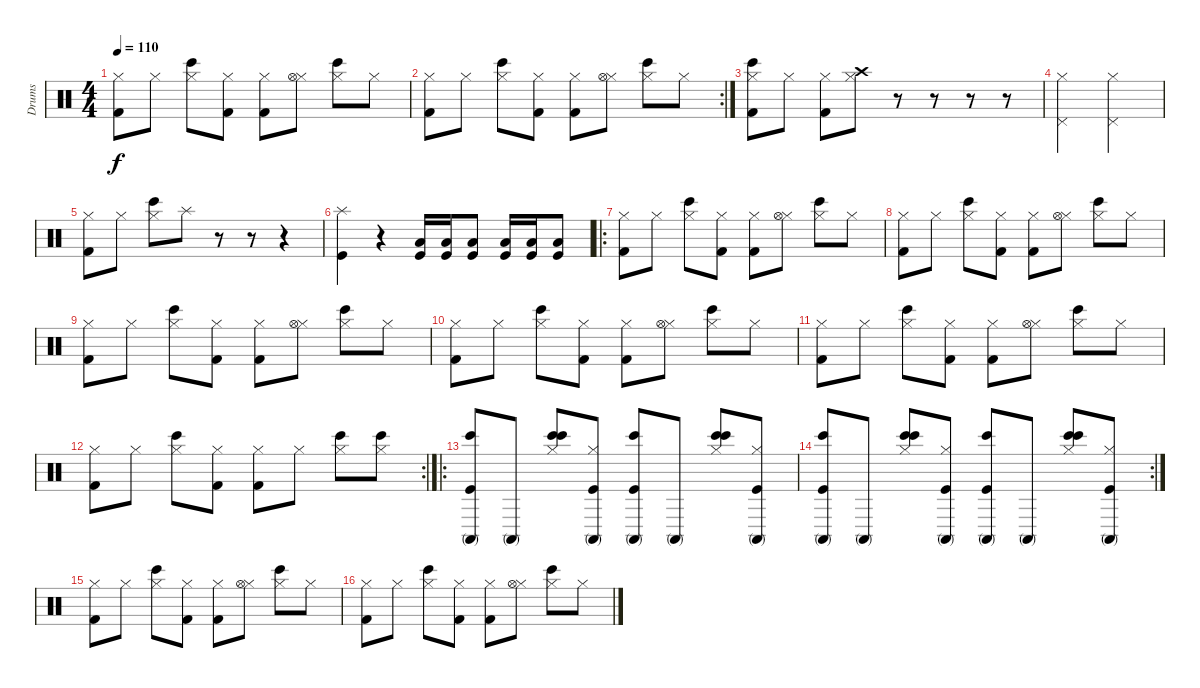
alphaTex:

\track ("Drums" "Drums") {instrument percussion}
\staff {score}
\articulation defaults
\ts (4 4)
\tempo 110
\clef neutral
\ks c
("Kick (hit) 2" "Hi-Hat (closed)").8{dy f} "Hi-Hat (closed)".8 ("Bongo High (hit)" "Hi-Hat (closed)").8 ("Kick (hit) 2" "Hi-Hat (closed)").8 ("Kick (hit) 2" "Hi-Hat (closed)").8 ("Hi-Hat (closed)" "Hi-Hat (open)").8 ("Bongo High (hit)" "Hi-Hat (closed)").8 "Hi-Hat (closed)".8 |
\rc 2
("Kick (hit) 2" "Hi-Hat (closed)").8 "Hi-Hat (closed)".8 ("Bongo High (hit)" "Hi-Hat (closed)").8 ("Kick (hit) 2" "Hi-Hat (closed)").8 ("Kick (hit) 2" "Hi-Hat (closed)").8 ("Hi-Hat (closed)" "Hi-Hat (open)").8 ("Bongo High (hit)" "Hi-Hat (closed)").8 "Hi-Hat (closed)".8 |
("Bongo High (hit)" "Kick (hit) 2" "Hi-Hat (closed)").8 "Hi-Hat (closed)".8 ("Kick (hit) 2" "Hi-Hat (closed)").8 ("Crash high (hit)" "Hi-Hat (closed)").8 r.8 r.8 r.8 r.8 |
("Hi-Hat (closed)" "Pedal Hi-Hat (hit)").2 ("Hi-Hat (closed)" "Pedal Hi-Hat (hit)").2 |
("Kick (hit) 2" "Hi-Hat (closed)").8 "Hi-Hat (closed)".8 ("Bongo High (hit)" "Hi-Hat (closed)").8 "Splash (hit)".8 r.8 r.8 r.4 |
("Kick (hit)" "Splash (hit)").4 r.4 ("Kick (hit)" "Low Floor Tom (hit)").16 ("Kick (hit)" "Low Floor Tom (hit)").16 ("Kick (hit)" "Low Floor Tom (hit)").8 ("Kick (hit)" "Low Floor Tom (hit)").16 ("Kick (hit)" "Low Floor Tom (hit)").16 ("Kick (hit)" "Low Tom (hit)").8 |
\ro
("Kick (hit) 2" "Hi-Hat (closed)").8 "Hi-Hat (closed)".8 ("Bongo High (hit)" "Hi-Hat (closed)").8 ("Kick (hit) 2" "Hi-Hat (closed)").8 ("Kick (hit) 2" "Hi-Hat (closed)").8 ("Hi-Hat (closed)" "Hi-Hat (open)").8 ("Bongo High (hit)" "Hi-Hat (closed)").8 "Hi-Hat (closed)".8 |
("Kick (hit) 2" "Hi-Hat (closed)").8 "Hi-Hat (closed)".8 ("Bongo High (hit)" "Hi-Hat (closed)").8 ("Kick (hit) 2" "Hi-Hat (closed)").8 ("Kick (hit) 2" "Hi-Hat (closed)").8 ("Hi-Hat (closed)" "Hi-Hat (open)").8 ("Bongo High (hit)" "Hi-Hat (closed)").8 "Hi-Hat (closed)".8 |
("Kick (hit) 2" "Hi-Hat (closed)").8 "Hi-Hat (closed)".8 ("Bongo High (hit)" "Hi-Hat (closed)").8 ("Kick (hit) 2" "Hi-Hat (closed)").8 ("Kick (hit) 2" "Hi-Hat (closed)").8 ("Hi-Hat (closed)" "Hi-Hat (open)").8 ("Bongo High (hit)" "Hi-Hat (closed)").8 "Hi-Hat (closed)".8 |
("Kick (hit) 2" "Hi-Hat (closed)").8 "Hi-Hat (closed)".8 ("Bongo High (hit)" "Hi-Hat (closed)").8 ("Kick (hit) 2" "Hi-Hat (closed)").8 ("Kick (hit) 2" "Hi-Hat (closed)").8 ("Hi-Hat (closed)" "Hi-Hat (open)").8 ("Bongo High (hit)" "Hi-Hat (closed)").8 "Hi-Hat (closed)".8 |
("Kick (hit) 2" "Hi-Hat (closed)").8 "Hi-Hat (closed)".8 ("Bongo High (hit)" "Hi-Hat (closed)").8 ("Kick (hit) 2" "Hi-Hat (closed)").8 ("Kick (hit) 2" "Hi-Hat (closed)").8 ("Hi-Hat (closed)" "Hi-Hat (open)").8 ("Bongo High (hit)" "Hi-Hat (closed)").8 "Hi-Hat (closed)".8 |
\rc 2
("Kick (hit) 2" "Hi-Hat (closed)").8 "Hi-Hat (closed)".8 ("Bongo High (hit)" "Hi-Hat (closed)").8 ("Kick (hit) 2" "Hi-Hat (closed)").8 ("Kick (hit) 2" "Hi-Hat (closed)").8 "Hi-Hat (closed)".8 ("Bongo High (hit)" "Hi-Hat (closed)").8 ("Bongo High (hit)" "Hi-Hat (closed)").8 |
\ro
("Kick (hit)" "Conga high (mute)" "Bongo High (hit)").8 "Conga high (mute)".8 ("Hi-Hat (closed)" "Bongo High (hit)" "Bongo High (hit)").8 ("Kick (hit)" "Conga high (mute)" "Hi-Hat (closed)").8 ("Kick (hit)" "Conga high (mute)" "Bongo High (hit)").8 "Conga high (mute)".8 ("Bongo High (hit)" "Hi-Hat (closed)" "Bongo High (hit)").8 ("Kick (hit)" "Conga high (mute)" "Hi-Hat (closed)").8 |
\rc 2
("Kick (hit)" "Conga high (mute)" "Bongo High (hit)").8 "Conga high (mute)".8 ("Hi-Hat (closed)" "Bongo High (hit)" "Bongo High (hit)").8 ("Kick (hit)" "Conga high (mute)" "Hi-Hat (closed)").8 ("Kick (hit)" "Conga high (mute)" "Bongo High (hit)").8 "Conga high (mute)".8 ("Bongo High (hit)" "Hi-Hat (closed)" "Bongo High (hit)").8 ("Kick (hit)" "Conga high (mute)" "Hi-Hat (closed)").8 |
("Kick (hit) 2" "Hi-Hat (closed)").8 "Hi-Hat (closed)".8 ("Bongo High (hit)" "Hi-Hat (closed)").8 ("Kick (hit) 2" "Hi-Hat (closed)").8 ("Kick (hit) 2" "Hi-Hat (closed)").8 ("Hi-Hat (closed)" "Hi-Hat (open)").8 ("Bongo High (hit)" "Hi-Hat (closed)").8 "Hi-Hat (closed)".8 |
("Kick (hit) 2" "Hi-Hat (closed)").8 "Hi-Hat (closed)".8 ("Bongo High (hit)" "Hi-Hat (closed)").8 ("Kick (hit) 2" "Hi-Hat (closed)").8 ("Kick (hit) 2" "Hi-Hat (closed)").8 ("Hi-Hat (closed)" "Hi-Hat (open)").8 ("Bongo High (hit)" "Hi-Hat (closed)").8 "Hi-Hat (closed)".8
